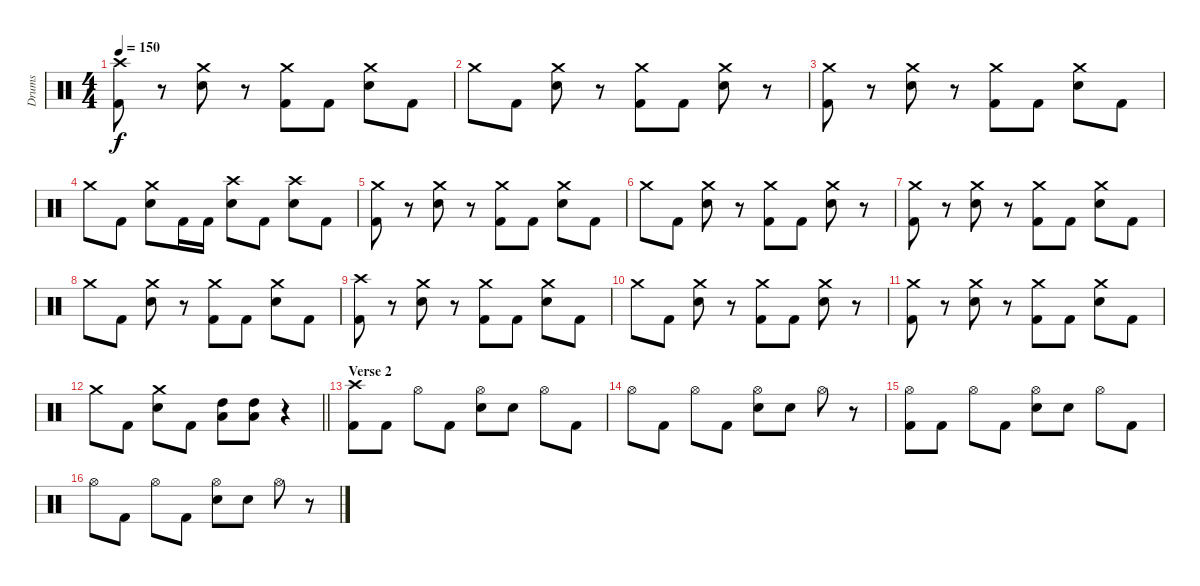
\track ("Drums" "Drums") {instrument percussion}
\staff {score}
\articulation defaults
\ts (4 4)
\tempo 150
\clef neutral
\ks c
("Crash high (hit)" "Kick (hit) 2").8{dy f} r.8 ("Crash medium (hit)" "Electric Snare (hit)").8 r.8 ("Crash medium (hit)" "Kick (hit) 2").8 "Kick (hit) 2".8 ("Crash medium (hit)" "Electric Snare (hit)").8 "Kick (hit) 2".8 |
"Crash medium (hit)".8 "Kick (hit) 2".8 ("Crash medium (hit)" "Electric Snare (hit)").8 r.8 ("Crash medium (hit)" "Kick (hit) 2").8 "Kick (hit) 2".8 ("Crash medium (hit)" "Electric Snare (hit)").8 r.8 |
("Crash medium (hit)" "Kick (hit) 2").8 r.8 ("Crash medium (hit)" "Electric Snare (hit)").8 r.8 ("Crash medium (hit)" "Kick (hit) 2").8 "Kick (hit) 2".8 ("Crash medium (hit)" "Electric Snare (hit)").8 "Kick (hit) 2".8 |
"Crash medium (hit)".8 "Kick (hit) 2".8 ("Crash medium (hit)" "Electric Snare (hit)").8 "Kick (hit) 2".16 "Kick (hit) 2".16 ("Crash high (hit)" "Electric Snare (hit)").8 "Kick (hit) 2".8 ("Crash high (hit)" "Electric Snare (hit)").8 "Kick (hit) 2".8 |
("Crash medium (hit)" "Kick (hit) 2").8 r.8 ("Crash medium (hit)" "Electric Snare (hit)").8 r.8 ("Crash medium (hit)" "Kick (hit) 2").8 "Kick (hit) 2".8 ("Crash medium (hit)" "Electric Snare (hit)").8 "Kick (hit) 2".8 |
"Crash medium (hit)".8 "Kick (hit) 2".8 ("Crash medium (hit)" "Electric Snare (hit)").8 r.8 ("Crash medium (hit)" "Kick (hit) 2").8 "Kick (hit) 2".8 ("Crash medium (hit)" "Electric Snare (hit)").8 r.8 |
("Crash medium (hit)" "Kick (hit) 2").8 r.8 ("Crash medium (hit)" "Electric Snare (hit)").8 r.8 ("Crash medium (hit)" "Kick (hit) 2").8 "Kick (hit) 2".8 ("Crash medium (hit)" "Electric Snare (hit)").8 "Kick (hit) 2".8 |
"Crash medium (hit)".8 "Kick (hit) 2".8 ("Crash medium (hit)" "Electric Snare (hit)").8 r.8 ("Crash medium (hit)" "Kick (hit) 2").8 "Kick (hit) 2".8 ("Crash medium (hit)" "Electric Snare (hit)").8 "Kick (hit) 2".8 |
("Crash high (hit)" "Kick (hit) 2").8 r.8 ("Crash medium (hit)" "Electric Snare (hit)").8 r.8 ("Crash medium (hit)" "Kick (hit) 2").8 "Kick (hit) 2".8 ("Crash medium (hit)" "Electric Snare (hit)").8 "Kick (hit) 2".8 |
"Crash medium (hit)".8 "Kick (hit) 2".8 ("Crash medium (hit)" "Electric Snare (hit)").8 r.8 ("Crash medium (hit)" "Kick (hit) 2").8 "Kick (hit) 2".8 ("Crash medium (hit)" "Electric Snare (hit)").8 r.8 |
("Crash medium (hit)" "Kick (hit) 2").8 r.8 ("Crash medium (hit)" "Electric Snare (hit)").8 r.8 ("Crash medium (hit)" "Kick (hit) 2").8 "Kick (hit) 2".8 ("Crash medium (hit)" "Electric Snare (hit)").8 "Kick (hit) 2".8 |
\barLineRight lightlight "Crash medium (hit)".8 "Kick (hit) 2".8
("Crash medium (hit)" "Electric Snare (hit)").8 "Kick (hit) 2".8 ("High Tom (hit)" "Low Tom (hit)").8 ("High Tom (hit)" "Low Tom (hit)").8 r.4 |
\section ("" "Verse 2")
("Crash high (hit)" "Kick (hit) 2").8 "Kick (hit) 2".8 "Hi-Hat (open)".8 "Kick (hit) 2".8 ("Hi-Hat (open)" "Electric Snare (hit)").8 "Electric Snare (hit)".8 "Hi-Hat (open)".8 "Kick (hit) 2".8 |
"Hi-Hat (open)".8 "Kick (hit) 2".8 "Hi-Hat (open)".8 "Kick (hit) 2".8 ("Hi-Hat (open)" "Electric Snare (hit)").8 "Electric Snare (hit)".8 "Hi-Hat (open)".8 r.8 |
("Hi-Hat (open)" "Kick (hit) 2").8 "Kick (hit) 2".8 "Hi-Hat (open)".8 "Kick (hit) 2".8 ("Hi-Hat (open)" "Electric Snare (hit)").8 "Electric Snare (hit)".8 "Hi-Hat (open)".8 "Kick (hit) 2".8 |
"Hi-Hat (open)".8 "Kick (hit) 2".8 "Hi-Hat (open)".8 "Kick (hit) 2".8 ("Hi-Hat (open)" "Electric Snare (hit)").8 "Electric Snare (hit)".8 "Hi-Hat (open)".8 r.8
